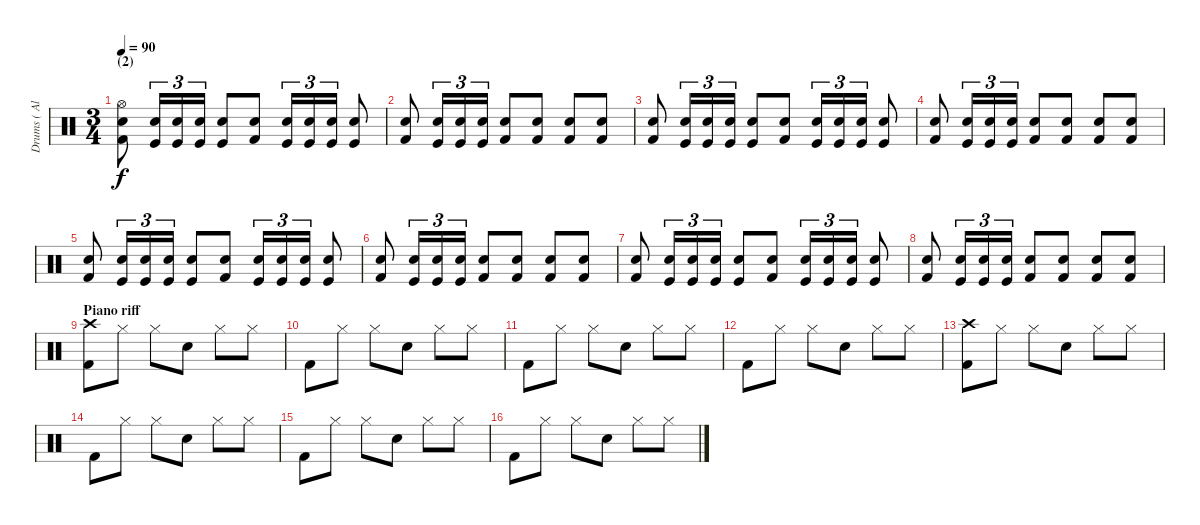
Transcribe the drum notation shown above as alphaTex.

\track ("Drums ( Alex Holzwarth)" "Drums ( Al") {instrument percussion}
\staff {score}
\articulation defaults
\ts (3 4)
\section ("" "(2)")
\tempo 90
\clef neutral
\ks c
("Hi-Hat (open)" "Electric Snare (hit)" "Kick (hit) 2").8{dy f} ("Electric Snare (hit)" "Kick (hit)").16{tu (3 2)} ("Electric Snare (hit)" "Kick (hit)").16{tu (3 2)} ("Electric Snare (hit)" "Kick (hit)").16{tu (3 2)} ("Electric Snare (hit)" "Kick (hit)").8 ("Electric Snare (hit)" "Kick (hit) 2").8 ("Electric Snare (hit)" "Kick (hit)").16{tu (3 2)} ("Electric Snare (hit)" "Kick (hit)").16{tu (3 2)} ("Electric Snare (hit)" "Kick (hit)").16{tu (3 2)} ("Electric Snare (hit)" "Kick (hit)").8 |
("Electric Snare (hit)" "Kick (hit) 2").8 ("Electric Snare (hit)" "Kick (hit)").16{tu (3 2)} ("Electric Snare (hit)" "Kick (hit)").16{tu (3 2)} ("Electric Snare (hit)" "Kick (hit)").16{tu (3 2)} ("Electric Snare (hit)" "Kick (hit) 2").8 ("Electric Snare (hit)" "Kick (hit) 2").8 ("Electric Snare (hit)" "Kick (hit) 2").8 ("Electric Snare (hit)" "Kick (hit) 2").8 |
("Electric Snare (hit)" "Kick (hit) 2").8 ("Electric Snare (hit)" "Kick (hit)").16{tu (3 2)} ("Electric Snare (hit)" "Kick (hit)").16{tu (3 2)} ("Electric Snare (hit)" "Kick (hit)").16{tu (3 2)} ("Electric Snare (hit)" "Kick (hit)").8 ("Electric Snare (hit)" "Kick (hit) 2").8 ("Electric Snare (hit)" "Kick (hit)").16{tu (3 2)} ("Electric Snare (hit)" "Kick (hit)").16{tu (3 2)} ("Electric Snare (hit)" "Kick (hit)").16{tu (3 2)} ("Electric Snare (hit)" "Kick (hit)").8 |
("Electric Snare (hit)" "Kick (hit) 2").8 ("Electric Snare (hit)" "Kick (hit)").16{tu (3 2)} ("Electric Snare (hit)" "Kick (hit)").16{tu (3 2)} ("Electric Snare (hit)" "Kick (hit)").16{tu (3 2)} ("Electric Snare (hit)" "Kick (hit) 2").8 ("Electric Snare (hit)" "Kick (hit) 2").8 ("Electric Snare (hit)" "Kick (hit) 2").8 ("Electric Snare (hit)" "Kick (hit) 2").8 |
("Electric Snare (hit)" "Kick (hit) 2").8 ("Electric Snare (hit)" "Kick (hit)").16{tu (3 2)} ("Electric Snare (hit)" "Kick (hit)").16{tu (3 2)} ("Electric Snare (hit)" "Kick (hit)").16{tu (3 2)} ("Electric Snare (hit)" "Kick (hit)").8 ("Electric Snare (hit)" "Kick (hit) 2").8 ("Electric Snare (hit)" "Kick (hit)").16{tu (3 2)} ("Electric Snare (hit)" "Kick (hit)").16{tu (3 2)} ("Electric Snare (hit)" "Kick (hit)").16{tu (3 2)} ("Electric Snare (hit)" "Kick (hit)").8 |
("Electric Snare (hit)" "Kick (hit) 2").8 ("Electric Snare (hit)" "Kick (hit)").16{tu (3 2)} ("Electric Snare (hit)" "Kick (hit)").16{tu (3 2)} ("Electric Snare (hit)" "Kick (hit)").16{tu (3 2)} ("Electric Snare (hit)" "Kick (hit) 2").8 ("Electric Snare (hit)" "Kick (hit) 2").8 ("Electric Snare (hit)" "Kick (hit) 2").8 ("Electric Snare (hit)" "Kick (hit) 2").8 |
("Electric Snare (hit)" "Kick (hit) 2").8 ("Electric Snare (hit)" "Kick (hit)").16{tu (3 2)} ("Electric Snare (hit)" "Kick (hit)").16{tu (3 2)} ("Electric Snare (hit)" "Kick (hit)").16{tu (3 2)} ("Electric Snare (hit)" "Kick (hit)").8 ("Electric Snare (hit)" "Kick (hit) 2").8 ("Electric Snare (hit)" "Kick (hit)").16{tu (3 2)} ("Electric Snare (hit)" "Kick (hit)").16{tu (3 2)} ("Electric Snare (hit)" "Kick (hit)").16{tu (3 2)} ("Electric Snare (hit)" "Kick (hit)").8 |
("Electric Snare (hit)" "Kick (hit) 2").8 ("Electric Snare (hit)" "Kick (hit)").16{tu (3 2)} ("Electric Snare (hit)" "Kick (hit)").16{tu (3 2)} ("Electric Snare (hit)" "Kick (hit)").16{tu (3 2)} ("Electric Snare (hit)" "Kick (hit) 2").8 ("Electric Snare (hit)" "Kick (hit) 2").8 ("Electric Snare (hit)" "Kick (hit) 2").8 ("Electric Snare (hit)" "Kick (hit) 2").8 |
\section ("" "Piano riff")
("Crash high (hit)" "Kick (hit) 2").8 "Hi-Hat (closed)".8 "Hi-Hat (closed)".8 "Snare (hit) 2".8 "Hi-Hat (closed)".8 "Hi-Hat (closed)".8 |
"Kick (hit) 2".8 "Hi-Hat (closed)".8 "Hi-Hat (closed)".8 "Snare (hit) 2".8 "Hi-Hat (closed)".8 "Hi-Hat (closed)".8 |
"Kick (hit) 2".8 "Hi-Hat (closed)".8 "Hi-Hat (closed)".8 "Snare (hit) 2".8 "Hi-Hat (closed)".8 "Hi-Hat (closed)".8 |
"Kick (hit) 2".8 "Hi-Hat (closed)".8 "Hi-Hat (closed)".8 "Snare (hit) 2".8 "Hi-Hat (closed)".8 "Hi-Hat (closed)".8 |
("Crash high (hit)" "Kick (hit) 2").8 "Hi-Hat (closed)".8 "Hi-Hat (closed)".8 "Snare (hit) 2".8 "Hi-Hat (closed)".8 "Hi-Hat (closed)".8 |
"Kick (hit) 2".8 "Hi-Hat (closed)".8 "Hi-Hat (closed)".8 "Snare (hit) 2".8 "Hi-Hat (closed)".8 "Hi-Hat (closed)".8 |
"Kick (hit) 2".8 "Hi-Hat (closed)".8 "Hi-Hat (closed)".8 "Snare (hit) 2".8 "Hi-Hat (closed)".8 "Hi-Hat (closed)".8 |
"Kick (hit) 2".8 "Hi-Hat (closed)".8 "Hi-Hat (closed)".8 "Snare (hit) 2".8 "Hi-Hat (closed)".8 "Hi-Hat (closed)".8
